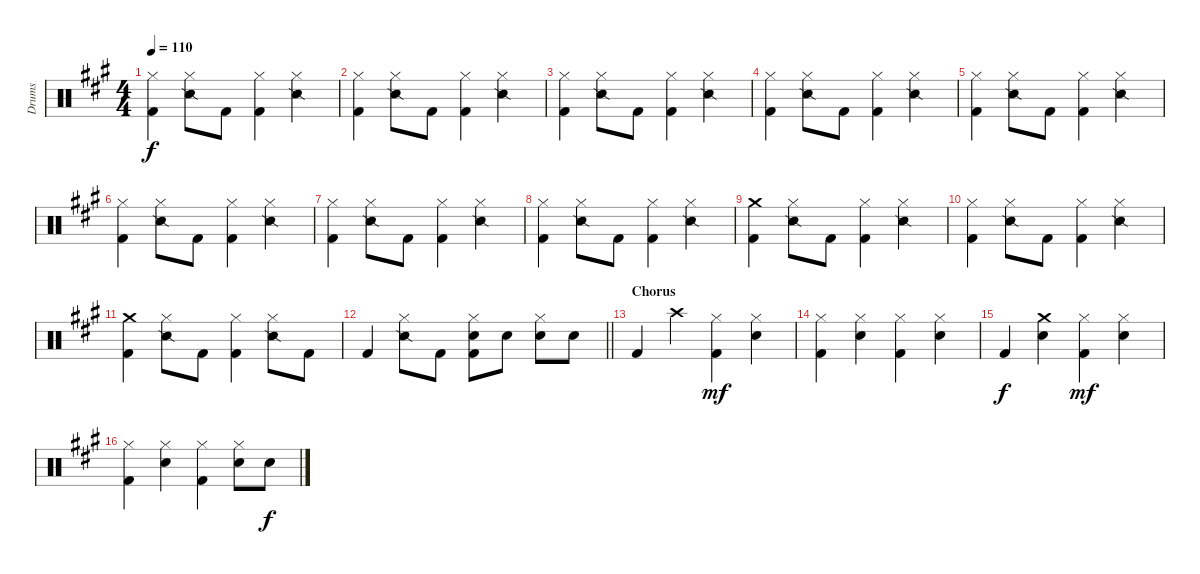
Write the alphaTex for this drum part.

\track ("Drums" "Drums") {instrument percussion}
\staff {score}
\articulation defaults
\ts (4 4)
\tempo 110
\clef neutral
\ks a
("Hi-Hat (closed)" "Kick (hit) 2").4{dy f} ("Hi-Hat (closed)" "Snare (side stick) 2").8 "Kick (hit) 2".8 ("Hi-Hat (closed)" "Kick (hit) 2").4 ("Hi-Hat (closed)" "Snare (side stick) 2").4 |
("Hi-Hat (closed)" "Kick (hit) 2").4 ("Hi-Hat (closed)" "Snare (side stick) 2").8 "Kick (hit) 2".8 ("Hi-Hat (closed)" "Kick (hit) 2").4 ("Hi-Hat (closed)" "Snare (side stick) 2").4 |
("Hi-Hat (closed)" "Kick (hit) 2").4 ("Hi-Hat (closed)" "Snare (side stick) 2").8 "Kick (hit) 2".8 ("Hi-Hat (closed)" "Kick (hit) 2").4 ("Hi-Hat (closed)" "Snare (side stick) 2").4 |
("Hi-Hat (closed)" "Kick (hit) 2").4 ("Hi-Hat (closed)" "Snare (side stick) 2").8 "Kick (hit) 2".8 ("Hi-Hat (closed)" "Kick (hit) 2").4 ("Hi-Hat (closed)" "Snare (side stick) 2").4 |
("Hi-Hat (closed)" "Kick (hit) 2").4 ("Hi-Hat (closed)" "Snare (side stick) 2").8 "Kick (hit) 2".8 ("Hi-Hat (closed)" "Kick (hit) 2").4 ("Hi-Hat (closed)" "Snare (side stick) 2").4 |
("Hi-Hat (closed)" "Kick (hit) 2").4 ("Hi-Hat (closed)" "Snare (side stick) 2").8 "Kick (hit) 2".8 ("Hi-Hat (closed)" "Kick (hit) 2").4 ("Hi-Hat (closed)" "Snare (side stick) 2").4 |
("Hi-Hat (closed)" "Kick (hit) 2").4 ("Hi-Hat (closed)" "Snare (side stick) 2").8 "Kick (hit) 2".8 ("Hi-Hat (closed)" "Kick (hit) 2").4 ("Hi-Hat (closed)" "Snare (side stick) 2").4 |
("Hi-Hat (closed)" "Kick (hit) 2").4 ("Hi-Hat (closed)" "Snare (side stick) 2").8 "Kick (hit) 2".8 ("Hi-Hat (closed)" "Kick (hit) 2").4 ("Hi-Hat (closed)" "Snare (side stick) 2").4 |
("Crash medium (hit)" "Kick (hit) 2").4 ("Hi-Hat (closed)" "Snare (side stick) 2").8 "Kick (hit) 2".8 ("Hi-Hat (closed)" "Kick (hit) 2").4 ("Hi-Hat (closed)" "Snare (side stick) 2").4 |
("Hi-Hat (closed)" "Kick (hit) 2").4 ("Hi-Hat (closed)" "Snare (side stick) 2").8 "Kick (hit) 2".8 ("Hi-Hat (closed)" "Kick (hit) 2").4 ("Hi-Hat (closed)" "Snare (side stick) 2").4 |
("Crash medium (hit)" "Kick (hit) 2").4 ("Hi-Hat (closed)" "Snare (side stick) 2").8 "Kick (hit) 2".8 ("Hi-Hat (closed)" "Kick (hit) 2").4 ("Hi-Hat (closed)" "Snare (side stick) 2").8 "Kick (hit) 2".8 |
\barLineRight lightlight "Kick (hit) 2".4
("Hi-Hat (closed)" "Snare (side stick) 2").8 "Kick (hit) 2".8 ("Hi-Hat (closed)" "Snare (hit) 2" "Kick (hit) 2").8 "Snare (hit) 2".8 ("Hi-Hat (closed)" "Snare (hit) 2").8 "Snare (hit) 2".8 |
\section ("" "Chorus")
"Kick (hit) 2".4 "Crash high (hit)".4 ("Hi-Hat (closed)" "Kick (hit) 2").4{dy mf} ("Hi-Hat (closed)" "Snare (hit) 2").4 |
("Hi-Hat (closed)" "Kick (hit) 2").4 ("Hi-Hat (closed)" "Snare (hit) 2").4 ("Hi-Hat (closed)" "Kick (hit) 2").4 ("Hi-Hat (closed)" "Snare (hit) 2").4 |
"Kick (hit) 2".4{dy f} ("Crash medium (hit)" "Snare (hit) 2").4 ("Hi-Hat (closed)" "Kick (hit) 2").4{dy mf} ("Hi-Hat (closed)" "Snare (hit) 2").4 |
("Hi-Hat (closed)" "Kick (hit) 2").4 ("Hi-Hat (closed)" "Snare (hit) 2").4 ("Hi-Hat (closed)" "Kick (hit) 2").4 ("Hi-Hat (closed)" "Snare (hit) 2").8 "Snare (hit) 2".8{dy f}
